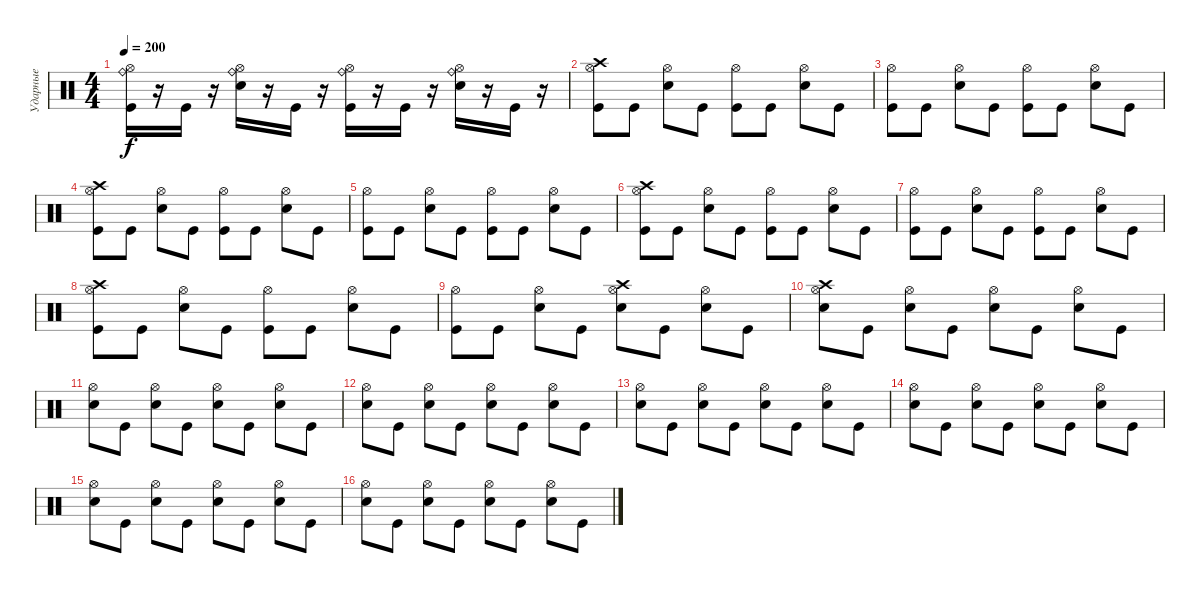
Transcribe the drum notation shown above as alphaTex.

\track ("Ударные" "Ударные") {instrument percussion}
\staff {score}
\articulation defaults
\ts (4 4)
\tempo 200
\clef neutral
\ks c
("Hi-Hat (open)" "Ride (bell)" "Kick (hit)").16{dy f} r.16 "Kick (hit)".16 r.16 ("Hi-Hat (open)" "Ride (bell)" "Electric Snare (hit)").16 r.16 "Kick (hit)".16 r.16 ("Hi-Hat (open)" "Ride (bell)" "Kick (hit)").16 r.16 "Kick (hit)".16 r.16 ("Hi-Hat (open)" "Ride (bell)" "Electric Snare (hit)").16 r.16 "Kick (hit)".16 r.16 |
("Hi-Hat (open)" "Crash high (hit)" "Kick (hit)").8 "Kick (hit)".8 ("Hi-Hat (open)" "Electric Snare (hit)").8 "Kick (hit)".8 ("Hi-Hat (open)" "Kick (hit)").8 "Kick (hit)".8 ("Hi-Hat (open)" "Electric Snare (hit)").8 "Kick (hit)".8 |
("Hi-Hat (open)" "Kick (hit)").8 "Kick (hit)".8 ("Hi-Hat (open)" "Electric Snare (hit)").8 "Kick (hit)".8 ("Hi-Hat (open)" "Kick (hit)").8 "Kick (hit)".8 ("Hi-Hat (open)" "Electric Snare (hit)").8 "Kick (hit)".8 |
("Hi-Hat (open)" "Crash high (hit)" "Kick (hit)").8 "Kick (hit)".8 ("Hi-Hat (open)" "Electric Snare (hit)").8 "Kick (hit)".8 ("Hi-Hat (open)" "Kick (hit)").8 "Kick (hit)".8 ("Hi-Hat (open)" "Electric Snare (hit)").8 "Kick (hit)".8 |
("Hi-Hat (open)" "Kick (hit)").8 "Kick (hit)".8 ("Hi-Hat (open)" "Electric Snare (hit)").8 "Kick (hit)".8 ("Hi-Hat (open)" "Kick (hit)").8 "Kick (hit)".8 ("Hi-Hat (open)" "Electric Snare (hit)").8 "Kick (hit)".8 |
("Hi-Hat (open)" "Crash high (hit)" "Kick (hit)").8 "Kick (hit)".8 ("Hi-Hat (open)" "Electric Snare (hit)").8 "Kick (hit)".8 ("Hi-Hat (open)" "Kick (hit)").8 "Kick (hit)".8 ("Hi-Hat (open)" "Electric Snare (hit)").8 "Kick (hit)".8 |
("Hi-Hat (open)" "Kick (hit)").8 "Kick (hit)".8 ("Hi-Hat (open)" "Electric Snare (hit)").8 "Kick (hit)".8 ("Hi-Hat (open)" "Kick (hit)").8 "Kick (hit)".8 ("Hi-Hat (open)" "Electric Snare (hit)").8 "Kick (hit)".8 |
("Hi-Hat (open)" "Crash high (hit)" "Kick (hit)").8 "Kick (hit)".8 ("Hi-Hat (open)" "Electric Snare (hit)").8 "Kick (hit)".8 ("Hi-Hat (open)" "Kick (hit)").8 "Kick (hit)".8 ("Hi-Hat (open)" "Electric Snare (hit)").8 "Kick (hit)".8 |
("Hi-Hat (open)" "Kick (hit)").8 "Kick (hit)".8 ("Hi-Hat (open)" "Electric Snare (hit)").8 "Kick (hit)".8 ("Hi-Hat (open)" "Electric Snare (hit)" "Crash high (hit)").8 "Kick (hit)".8 ("Hi-Hat (open)" "Electric Snare (hit)").8 "Kick (hit)".8 |
("Hi-Hat (open)" "Electric Snare (hit)" "Crash high (hit)").8 "Kick (hit)".8 ("Hi-Hat (open)" "Electric Snare (hit)").8 "Kick (hit)".8 ("Hi-Hat (open)" "Electric Snare (hit)").8 "Kick (hit)".8 ("Hi-Hat (open)" "Electric Snare (hit)").8 "Kick (hit)".8 |
("Hi-Hat (open)" "Electric Snare (hit)").8 "Kick (hit)".8 ("Hi-Hat (open)" "Electric Snare (hit)").8 "Kick (hit)".8 ("Hi-Hat (open)" "Electric Snare (hit)").8 "Kick (hit)".8 ("Hi-Hat (open)" "Electric Snare (hit)").8 "Kick (hit)".8 |
("Hi-Hat (open)" "Electric Snare (hit)").8 "Kick (hit)".8 ("Hi-Hat (open)" "Electric Snare (hit)").8 "Kick (hit)".8 ("Hi-Hat (open)" "Electric Snare (hit)").8 "Kick (hit)".8 ("Hi-Hat (open)" "Electric Snare (hit)").8 "Kick (hit)".8 |
("Hi-Hat (open)" "Electric Snare (hit)").8 "Kick (hit)".8 ("Hi-Hat (open)" "Electric Snare (hit)").8 "Kick (hit)".8 ("Hi-Hat (open)" "Electric Snare (hit)").8 "Kick (hit)".8 ("Hi-Hat (open)" "Electric Snare (hit)").8 "Kick (hit)".8 |
("Hi-Hat (open)" "Electric Snare (hit)").8 "Kick (hit)".8 ("Hi-Hat (open)" "Electric Snare (hit)").8 "Kick (hit)".8 ("Hi-Hat (open)" "Electric Snare (hit)").8 "Kick (hit)".8 ("Hi-Hat (open)" "Electric Snare (hit)").8 "Kick (hit)".8 |
("Hi-Hat (open)" "Electric Snare (hit)").8 "Kick (hit)".8 ("Hi-Hat (open)" "Electric Snare (hit)").8 "Kick (hit)".8 ("Hi-Hat (open)" "Electric Snare (hit)").8 "Kick (hit)".8 ("Hi-Hat (open)" "Electric Snare (hit)").8 "Kick (hit)".8 |
("Hi-Hat (open)" "Electric Snare (hit)").8 "Kick (hit)".8 ("Hi-Hat (open)" "Electric Snare (hit)").8 "Kick (hit)".8 ("Hi-Hat (open)" "Electric Snare (hit)").8 "Kick (hit)".8 ("Hi-Hat (open)" "Electric Snare (hit)").8 "Kick (hit)".8
